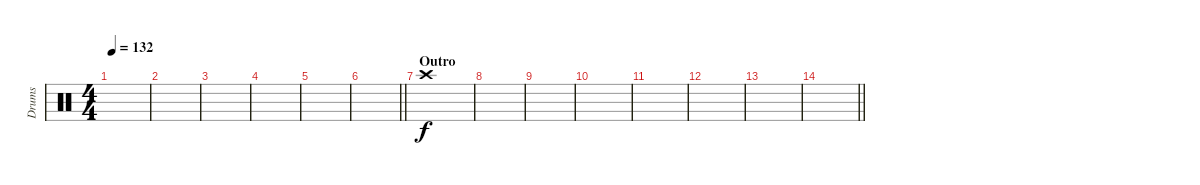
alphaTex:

\track ("Drums" "Drums") {instrument percussion}
\staff {score}
\articulation defaults
\ts (4 4)
\tempo 132
\clef neutral
\ks c
|
|
|
|
|
\barLineRight lightlight
|
\section ("" "Outro ")
"Crash high (hit)".1 |
|
|
|
|
|
|
\barLineRight lightlight
